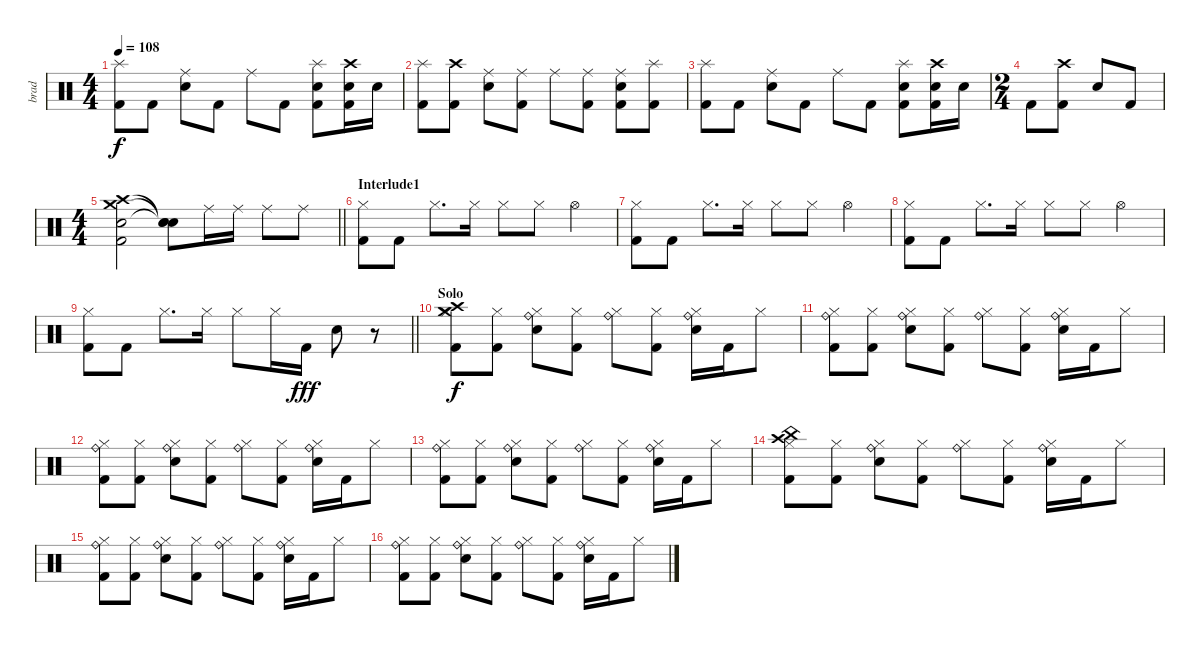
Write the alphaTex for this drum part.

\track ("brad" "brad") {instrument percussion}
\staff {score}
\articulation defaults
\ts (4 4)
\tempo 108
\clef neutral
\ks c
("Splash (hit)" "Kick (hit) 2").8{dy f} "Kick (hit) 2".8 ("Ride (middle)" "Electric Snare (hit)").8 "Kick (hit) 2".8 "Ride (middle)".8 "Kick (hit) 2".8 ("Splash (hit)" "Electric Snare (hit)" "Kick (hit) 2").8 ("Crash high (hit)" "Electric Snare (hit)" "Kick (hit) 2").16 "Electric Snare (hit)".16 |
("Splash (hit)" "Kick (hit) 2").8 ("Crash high (hit)" "Kick (hit) 2").8 ("Ride (middle)" "Electric Snare (hit)").8 ("Ride (middle)" "Kick (hit) 2").8 "Ride (middle)".8 ("Ride (middle)" "Kick (hit) 2").8 ("Ride (middle)" "Electric Snare (hit)" "Kick (hit) 2").8 ("Splash (hit)" "Kick (hit) 2").8 |
("Splash (hit)" "Kick (hit) 2").8 "Kick (hit) 2".8 ("Ride (middle)" "Electric Snare (hit)").8 "Kick (hit) 2".8 "Ride (middle)".8 "Kick (hit) 2".8 ("Splash (hit)" "Electric Snare (hit)" "Kick (hit) 2").8 ("Crash high (hit)" "Electric Snare (hit)" "Kick (hit) 2").16 "Electric Snare (hit)".16 |
\ts (2 4)
"Kick (hit) 2".8 ("Crash high (hit)" "Kick (hit) 2").8 "Electric Snare (hit)".8 "Kick (hit) 2".8 |
\ts (4 4)
\barLineRight lightlight
("Crash medium (hit)" "Crash high (hit)" "Electric Snare (hit)" "Kick (hit) 2").2 ("Snare (hit)"{t} "Snare (hit)"{t} "Snare (hit)"{t}).8 "Ride (middle)".16 "Ride (middle)".16 "Ride (middle)".8 "Ride (middle)".8 |
\section ("" "Interlude1")
("Hi-Hat (closed)" "Kick (hit) 2").8 "Kick (hit) 2".8 "Hi-Hat (closed)".8{d} "Hi-Hat (closed)".16 "Hi-Hat (closed)".8 "Hi-Hat (closed)".8 "Hi-Hat (open)".4 |
("Hi-Hat (closed)" "Kick (hit) 2").8 "Kick (hit) 2".8 "Hi-Hat (closed)".8{d} "Hi-Hat (closed)".16 "Hi-Hat (closed)".8 "Hi-Hat (closed)".8 "Hi-Hat (open)".4 |
("Hi-Hat (closed)" "Kick (hit) 2").8 "Kick (hit) 2".8 "Hi-Hat (closed)".8{d} "Hi-Hat (closed)".16 "Hi-Hat (closed)".8 "Hi-Hat (closed)".8 "Hi-Hat (open)".4 |
\barLineRight lightlight
("Hi-Hat (closed)" "Kick (hit) 2").8 "Kick (hit) 2".8 "Hi-Hat (closed)".8{d} "Hi-Hat (closed)".16 "Hi-Hat (closed)".8 "Hi-Hat (closed)".16 "Kick (hit) 2".16{dy fff} "Electric Snare (hit)".8 r.8 |
\section ("" "Solo")
("Crash medium (hit)" "Crash high (hit)" "Hi-Hat (closed)" "Kick (hit) 2").8{dy f} ("Hi-Hat (closed)" "Kick (hit) 2").8 ("Ride (bell)" "Hi-Hat (closed)" "Electric Snare (hit)").8 ("Hi-Hat (closed)" "Kick (hit) 2").8 ("Ride (bell)" "Hi-Hat (closed)").8 ("Hi-Hat (closed)" "Kick (hit) 2").8 ("Ride (bell)" "Hi-Hat (closed)" "Electric Snare (hit)").16 "Kick (hit) 2".16 "Hi-Hat (closed)".8 |
("Ride (bell)" "Hi-Hat (closed)" "Kick (hit) 2").8 ("Hi-Hat (closed)" "Kick (hit) 2").8 ("Ride (bell)" "Hi-Hat (closed)" "Electric Snare (hit)").8 ("Hi-Hat (closed)" "Kick (hit) 2").8 ("Ride (bell)" "Hi-Hat (closed)").8 ("Hi-Hat (closed)" "Kick (hit) 2").8 ("Ride (bell)" "Hi-Hat (closed)" "Electric Snare (hit)").16 "Kick (hit) 2".16 "Hi-Hat (closed)".8 |
("Ride (bell)" "Hi-Hat (closed)" "Kick (hit) 2").8 ("Hi-Hat (closed)" "Kick (hit) 2").8 ("Ride (bell)" "Hi-Hat (closed)" "Electric Snare (hit)").8 ("Hi-Hat (closed)" "Kick (hit) 2").8 ("Ride (bell)" "Hi-Hat (closed)").8 ("Hi-Hat (closed)" "Kick (hit) 2").8 ("Ride (bell)" "Hi-Hat (closed)" "Electric Snare (hit)").16 "Kick (hit) 2".16 "Hi-Hat (closed)".8 |
("Ride (bell)" "Hi-Hat (closed)" "Kick (hit) 2").8 ("Hi-Hat (closed)" "Kick (hit) 2").8 ("Ride (bell)" "Hi-Hat (closed)" "Electric Snare (hit)").8 ("Hi-Hat (closed)" "Kick (hit) 2").8 ("Ride (bell)" "Hi-Hat (closed)").8 ("Hi-Hat (closed)" "Kick (hit) 2").8 ("Ride (bell)" "Hi-Hat (closed)" "Electric Snare (hit)").16 "Kick (hit) 2".16 "Hi-Hat (closed)".8 |
("China (hit)" "Crash high (hit)" "Hi-Hat (closed)" "Kick (hit) 2").8 ("Hi-Hat (closed)" "Kick (hit) 2").8 ("Ride (bell)" "Hi-Hat (closed)" "Electric Snare (hit)").8 ("Hi-Hat (closed)" "Kick (hit) 2").8 ("Ride (bell)" "Hi-Hat (closed)").8 ("Hi-Hat (closed)" "Kick (hit) 2").8 ("Ride (bell)" "Hi-Hat (closed)" "Electric Snare (hit)").16 "Kick (hit) 2".16 "Hi-Hat (closed)".8 |
("Ride (bell)" "Hi-Hat (closed)" "Kick (hit) 2").8 ("Hi-Hat (closed)" "Kick (hit) 2").8 ("Ride (bell)" "Hi-Hat (closed)" "Electric Snare (hit)").8 ("Hi-Hat (closed)" "Kick (hit) 2").8 ("Ride (bell)" "Hi-Hat (closed)").8 ("Hi-Hat (closed)" "Kick (hit) 2").8 ("Ride (bell)" "Hi-Hat (closed)" "Electric Snare (hit)").16 "Kick (hit) 2".16 "Hi-Hat (closed)".8 |
("Ride (bell)" "Hi-Hat (closed)" "Kick (hit) 2").8 ("Hi-Hat (closed)" "Kick (hit) 2").8 ("Ride (bell)" "Hi-Hat (closed)" "Electric Snare (hit)").8 ("Hi-Hat (closed)" "Kick (hit) 2").8 ("Ride (bell)" "Hi-Hat (closed)").8 ("Hi-Hat (closed)" "Kick (hit) 2").8 ("Ride (bell)" "Hi-Hat (closed)" "Electric Snare (hit)").16 "Kick (hit) 2".16 "Hi-Hat (closed)".8
